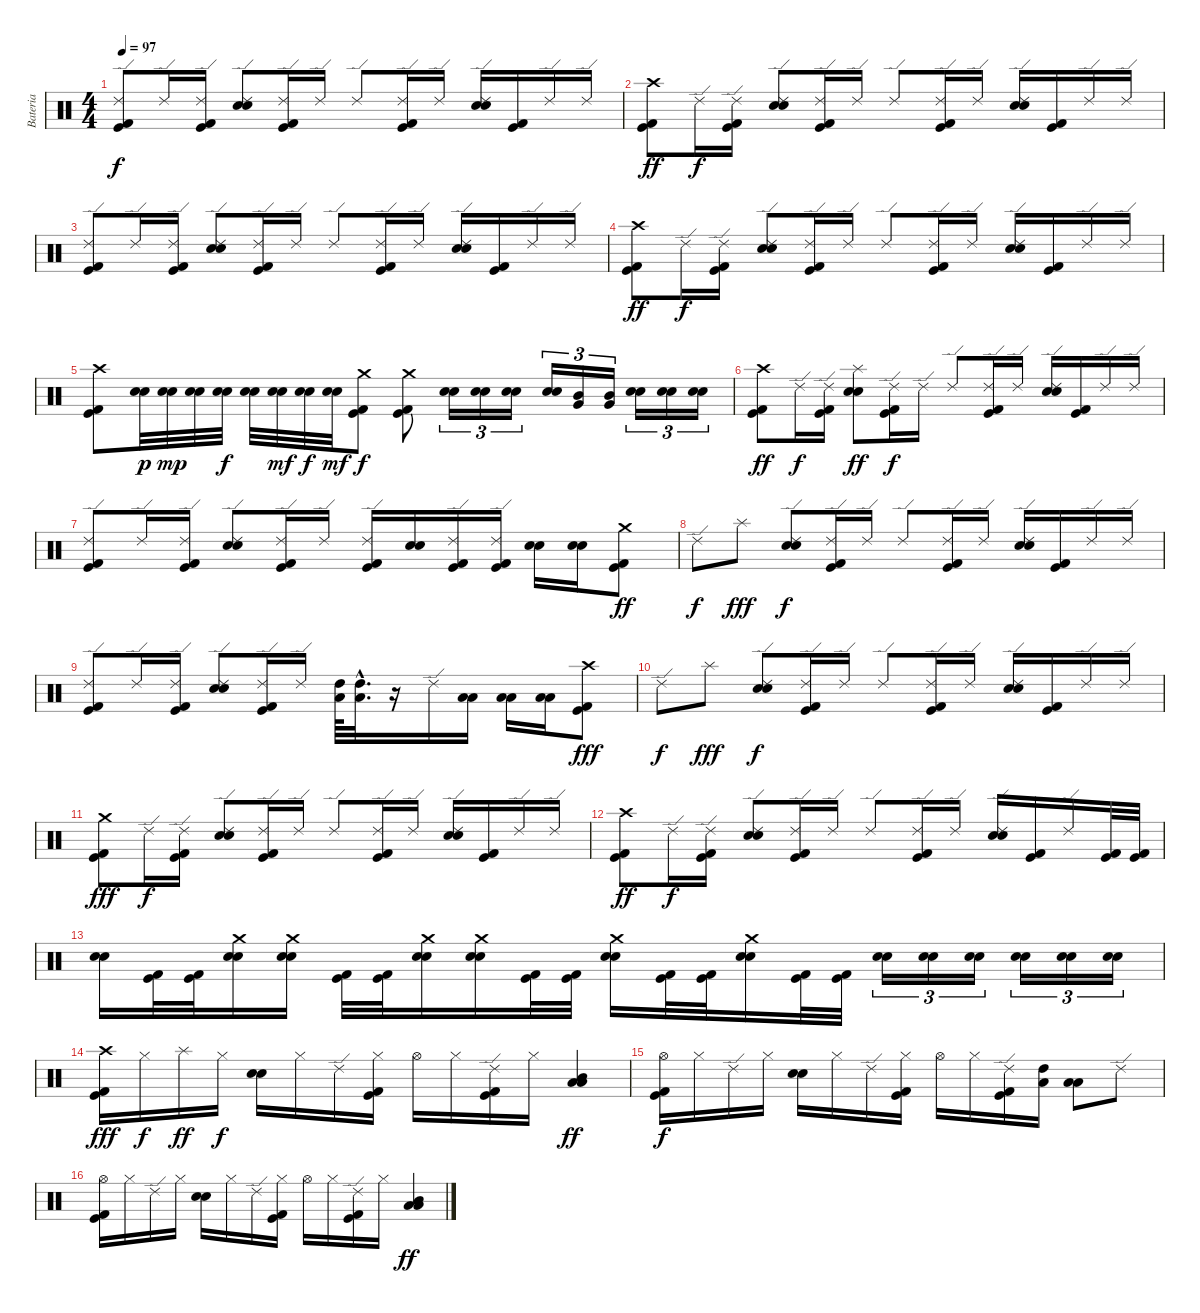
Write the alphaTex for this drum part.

\track ("Bateria" "Bateria") {instrument percussion}
\staff {score}
\articulation defaults
\ts (4 4)
\tempo 97
\clef neutral
\ks c
("Ride (edge) 2" "Kick (hit) 2" "Kick (hit)").8{dy f} "Ride (edge) 2".16 ("Ride (edge) 2" "Kick (hit) 2" "Kick (hit)").16 ("Ride (edge) 2" "Electric Snare (hit)" "Snare (hit) 2").8 ("Ride (edge) 2" "Kick (hit) 2" "Kick (hit)").16 "Ride (edge) 2".16 "Ride (edge) 2".8 ("Ride (edge) 2" "Kick (hit) 2" "Kick (hit)").16 "Ride (edge) 2".16 ("Ride (edge) 2" "Electric Snare (hit)" "Snare (hit) 2").16 ("Kick (hit) 2" "Kick (hit)").16 "Ride (edge) 2".16 "Ride (edge) 2".16 |
("Crash high (hit)" "Kick (hit) 2" "Kick (hit)").8{dy ff} "Ride (edge) 2".16{dy f} ("Ride (edge) 2" "Kick (hit) 2" "Kick (hit)").16 ("Ride (edge) 2" "Electric Snare (hit)" "Snare (hit) 2").8 ("Ride (edge) 2" "Kick (hit) 2" "Kick (hit)").16 "Ride (edge) 2".16 "Ride (edge) 2".8 ("Ride (edge) 2" "Kick (hit) 2" "Kick (hit)").16 "Ride (edge) 2".16 ("Ride (edge) 2" "Electric Snare (hit)" "Snare (hit) 2").16 ("Kick (hit) 2" "Kick (hit)").16 "Ride (edge) 2".16 "Ride (edge) 2".16 |
("Ride (edge) 2" "Kick (hit) 2" "Kick (hit)").8 "Ride (edge) 2".16 ("Ride (edge) 2" "Kick (hit) 2" "Kick (hit)").16 ("Ride (edge) 2" "Electric Snare (hit)" "Snare (hit) 2").8 ("Ride (edge) 2" "Kick (hit) 2" "Kick (hit)").16 "Ride (edge) 2".16 "Ride (edge) 2".8 ("Ride (edge) 2" "Kick (hit) 2" "Kick (hit)").16 "Ride (edge) 2".16 ("Ride (edge) 2" "Electric Snare (hit)" "Snare (hit) 2").16 ("Kick (hit) 2" "Kick (hit)").16 "Ride (edge) 2".16 "Ride (edge) 2".16 |
("Crash high (hit)" "Kick (hit) 2" "Kick (hit)").8{dy ff} "Ride (edge) 2".16{dy f} ("Ride (edge) 2" "Kick (hit) 2" "Kick (hit)").16 ("Ride (edge) 2" "Electric Snare (hit)" "Snare (hit) 2").8 ("Ride (edge) 2" "Kick (hit) 2" "Kick (hit)").16 "Ride (edge) 2".16 "Ride (edge) 2".8 ("Ride (edge) 2" "Kick (hit) 2" "Kick (hit)").16 "Ride (edge) 2".16 ("Ride (edge) 2" "Electric Snare (hit)" "Snare (hit) 2").16 ("Kick (hit) 2" "Kick (hit)").16 "Ride (edge) 2".16 "Ride (edge) 2".16 |
("Crash high (hit)" "Kick (hit) 2" "Kick (hit)").8 ("Electric Snare (hit)" "Snare (hit) 2").32{dy p} ("Electric Snare (hit)" "Snare (hit) 2").32{dy mp} ("Electric Snare (hit)" "Snare (hit) 2").32 ("Electric Snare (hit)" "Snare (hit) 2").32{dy f} ("Electric Snare (hit)" "Snare (hit) 2").32 ("Electric Snare (hit)" "Snare (hit) 2").32{dy mf} ("Electric Snare (hit)" "Snare (hit) 2").32{dy f} ("Electric Snare (hit)" "Snare (hit) 2").32{dy mf} ("Crash medium (hit)" "Kick (hit) 2" "Kick (hit)").8{dy f} ("Crash medium (hit)" "Kick (hit) 2" "Kick (hit)").8 ("Electric Snare (hit)" "Snare (hit) 2").16{tu (3 2)} ("Electric Snare (hit)" "Snare (hit) 2").16{tu (3 2)} ("Electric Snare (hit)" "Snare (hit) 2").16{tu (3 2)} ("Electric Snare (hit)" "Snare (hit) 2").16{tu (3 2)} ("Mid Tom (hit)" "Very Low Tom (hit)").16{tu (3 2)} ("Mid Tom (hit)" "Very Low Tom (hit)").16{tu (3 2)} ("Electric Snare (hit)" "Snare (hit) 2").16{tu (3 2)} ("Electric Snare (hit)" "Snare (hit) 2").16{tu (3 2)} ("Electric Snare (hit)" "Snare (hit) 2").16{tu (3 2)} |
("Crash high (hit)" "Kick (hit) 2" "Kick (hit)").8{dy ff} "Ride (edge) 2".16{dy f} ("Ride (edge) 2" "Kick (hit) 2" "Kick (hit)").16 ("Splash (hit)" "Electric Snare (hit)" "Snare (hit) 2").8{dy ff} ("Ride (edge) 2" "Kick (hit) 2" "Kick (hit)").16{dy f} "Ride (edge) 2".16 "Ride (edge) 2".8 ("Ride (edge) 2" "Kick (hit) 2" "Kick (hit)").16 "Ride (edge) 2".16 ("Ride (edge) 2" "Electric Snare (hit)" "Snare (hit) 2").16 ("Kick (hit) 2" "Kick (hit)").16 "Ride (edge) 2".16 "Ride (edge) 2".16 |
("Ride (edge) 2" "Kick (hit) 2" "Kick (hit)").8 "Ride (edge) 2".16 ("Ride (edge) 2" "Kick (hit) 2" "Kick (hit)").16 ("Ride (edge) 2" "Electric Snare (hit)" "Snare (hit) 2").8 ("Ride (edge) 2" "Kick (hit) 2" "Kick (hit)").16 "Ride (edge) 2".16 ("Ride (edge) 2" "Kick (hit) 2" "Kick (hit)").16 ("Electric Snare (hit)" "Snare (hit) 2").16 ("Ride (edge) 2" "Kick (hit) 2" "Kick (hit)").16 ("Ride (edge) 2" "Kick (hit) 2" "Kick (hit)").16 ("Electric Snare (hit)" "Snare (hit) 2").16 ("Electric Snare (hit)" "Snare (hit) 2").16 ("Crash medium (hit)" "Kick (hit) 2" "Kick (hit)").8{dy ff} |
"Ride (edge) 2".8{dy f} "Splash (hit)".8{dy fff} ("Ride (edge) 2" "Electric Snare (hit)" "Snare (hit) 2").8{dy f} ("Ride (edge) 2" "Kick (hit) 2" "Kick (hit)").16 "Ride (edge) 2".16 "Ride (edge) 2".8 ("Ride (edge) 2" "Kick (hit) 2" "Kick (hit)").16 "Ride (edge) 2".16 ("Ride (edge) 2" "Electric Snare (hit)" "Snare (hit) 2").16 ("Kick (hit) 2" "Kick (hit)").16 "Ride (edge) 2".16 "Ride (edge) 2".16 |
("Ride (edge) 2" "Kick (hit) 2" "Kick (hit)").8 "Ride (edge) 2".16 ("Ride (edge) 2" "Kick (hit) 2" "Kick (hit)").16 ("Ride (edge) 2" "Electric Snare (hit)" "Snare (hit) 2").8 ("Ride (edge) 2" "Kick (hit) 2" "Kick (hit)").16 "Ride (edge) 2".16 ("High Tom (hit)" "Low Tom (hit)").64 ("High Tom (hit)"{hac} "Low Tom (hit)"{hac}).32{d} r.16 "Ride (edge) 2".16 ("Low Tom (hit)" "Low Floor Tom (hit)").16 ("Low Tom (hit)" "Low Floor Tom (hit)").16 ("Low Tom (hit)" "Low Floor Tom (hit)").16 ("Crash high (hit)" "Kick (hit) 2" "Kick (hit)").8{dy fff} |
"Ride (edge) 2".8{dy f} "Splash (hit)".8{dy fff} ("Ride (edge) 2" "Electric Snare (hit)" "Snare (hit) 2").8{dy f} ("Ride (edge) 2" "Kick (hit) 2" "Kick (hit)").16 "Ride (edge) 2".16 "Ride (edge) 2".8 ("Ride (edge) 2" "Kick (hit) 2" "Kick (hit)").16 "Ride (edge) 2".16 ("Ride (edge) 2" "Electric Snare (hit)" "Snare (hit) 2").16 ("Kick (hit) 2" "Kick (hit)").16 "Ride (edge) 2".16 "Ride (edge) 2".16 |
("Crash medium (hit)" "Kick (hit) 2" "Kick (hit)").8{dy fff} "Ride (edge) 2".16{dy f} ("Ride (edge) 2" "Kick (hit) 2" "Kick (hit)").16 ("Ride (edge) 2" "Electric Snare (hit)" "Snare (hit) 2").8 ("Ride (edge) 2" "Kick (hit) 2" "Kick (hit)").16 "Ride (edge) 2".16 "Ride (edge) 2".8 ("Ride (edge) 2" "Kick (hit) 2" "Kick (hit)").16 "Ride (edge) 2".16 ("Ride (edge) 2" "Electric Snare (hit)" "Snare (hit) 2").16 ("Kick (hit) 2" "Kick (hit)").16 "Ride (edge) 2".16 "Ride (edge) 2".16 |
("Crash high (hit)" "Kick (hit) 2" "Kick (hit)").8{dy ff} "Ride (edge) 2".16{dy f} ("Ride (edge) 2" "Kick (hit) 2" "Kick (hit)").16 ("Ride (edge) 2" "Electric Snare (hit)" "Snare (hit) 2").8 ("Ride (edge) 2" "Kick (hit) 2" "Kick (hit)").16 "Ride (edge) 2".16 "Ride (edge) 2".8 ("Ride (edge) 2" "Kick (hit) 2" "Kick (hit)").16 "Ride (edge) 2".16 ("Ride (edge) 2" "Electric Snare (hit)" "Snare (hit) 2").16 ("Kick (hit) 2" "Kick (hit)").16 "Ride (edge) 2".16 ("Kick (hit) 2" "Kick (hit)").32 ("Kick (hit) 2" "Kick (hit)").32 |
("Electric Snare (hit)" "Snare (hit) 2").16 ("Kick (hit) 2" "Kick (hit)").32 ("Kick (hit) 2" "Kick (hit)").32 ("Crash medium (hit)" "Electric Snare (hit)" "Snare (hit) 2").16 ("Crash medium (hit)" "Electric Snare (hit)" "Snare (hit) 2").16 ("Kick (hit) 2" "Kick (hit)").32 ("Kick (hit) 2" "Kick (hit)").32 ("Crash medium (hit)" "Electric Snare (hit)" "Snare (hit) 2").16 ("Crash medium (hit)" "Electric Snare (hit)" "Snare (hit) 2").16 ("Kick (hit) 2" "Kick (hit)").32 ("Kick (hit) 2" "Kick (hit)").32 ("Crash medium (hit)" "Electric Snare (hit)" "Snare (hit) 2").16 ("Kick (hit) 2" "Kick (hit)").32 ("Kick (hit) 2" "Kick (hit)").32 ("Crash medium (hit)" "Electric Snare (hit)" "Snare (hit) 2").16 ("Kick (hit) 2" "Kick (hit)").32 ("Kick (hit) 2" "Kick (hit)").32 ("Electric Snare (hit)" "Snare (hit) 2").16{tu (3 2)} ("Electric Snare (hit)" "Snare (hit) 2").16{tu (3 2)} ("Electric Snare (hit)" "Snare (hit) 2").16{tu (3 2)} ("Electric Snare (hit)" "Snare (hit) 2").16{tu (3 2)} ("Electric Snare (hit)" "Snare (hit) 2").16{tu (3 2)} ("Electric Snare (hit)" "Snare (hit) 2").16{tu (3 2)} |
("Crash high (hit)" "Kick (hit) 2" "Kick (hit)").16{dy fff} "Hi-Hat (closed)".16{dy f} "Splash (hit)".16{dy ff} "Hi-Hat (closed)".16{dy f} ("Electric Snare (hit)" "Snare (hit) 2").16 "Hi-Hat (closed)".16 "Ride (edge) 2".16 ("Hi-Hat (closed)" "Kick (hit) 2" "Kick (hit)").16 "Hi-Hat (open)".16 "Hi-Hat (closed)".16 ("Ride (edge) 2" "Kick (hit) 2" "Kick (hit)").16 "Hi-Hat (closed)".16 ("Low Tom (hit)" "Low Floor Tom (hit)" "Mid Tom (hit)").4{dy ff} |
("Hi-Hat (open)" "Kick (hit) 2" "Kick (hit)").16{dy f} "Hi-Hat (closed)".16 "Ride (edge) 2".16 "Hi-Hat (closed)".16 ("Electric Snare (hit)" "Snare (hit) 2").16 "Hi-Hat (closed)".16 "Ride (edge) 2".16 ("Hi-Hat (closed)" "Kick (hit) 2" "Kick (hit)").16 "Hi-Hat (open)".16 "Hi-Hat (closed)".16 ("Ride (edge) 2" "Kick (hit) 2" "Kick (hit)").16 ("High Tom (hit)" "Low Tom (hit)").16 ("Low Tom (hit)" "Low Floor Tom (hit)").8 "Ride (edge) 2".8 |
("Hi-Hat (open)" "Kick (hit) 2" "Kick (hit)").16 "Hi-Hat (closed)".16 "Ride (edge) 2".16 "Hi-Hat (closed)".16 ("Electric Snare (hit)" "Snare (hit) 2").16 "Hi-Hat (closed)".16 "Ride (edge) 2".16 ("Hi-Hat (closed)" "Kick (hit) 2" "Kick (hit)").16 "Hi-Hat (open)".16 "Hi-Hat (closed)".16 ("Ride (edge) 2" "Kick (hit) 2" "Kick (hit)").16 "Hi-Hat (closed)".16 ("Low Tom (hit)" "Low Floor Tom (hit)" "Mid Tom (hit)").4{dy ff}
